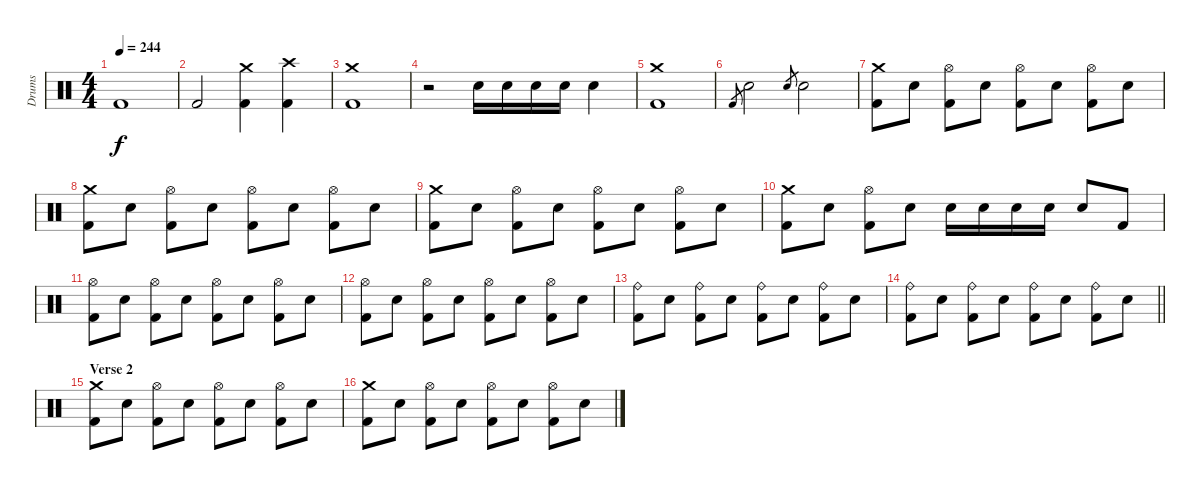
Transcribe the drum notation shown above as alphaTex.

\track ("Drums" "Drums") {instrument percussion}
\staff
\articulation defaults
\ts (4 4)
\tempo 244
\clef neutral
\ks c "Kick (hit) 2".1{dy f}
|
"Kick (hit) 2".2 ("Crash medium (hit)" "Kick (hit) 2").4 ("Crash high (hit)" "Kick (hit) 2").4 |
("Crash medium (hit)" "Kick (hit) 2").1 |
r.2 "Electric Snare (hit)".16 "Electric Snare (hit)".16 "Electric Snare (hit)".16 "Electric Snare (hit)".16 "Electric Snare (hit)".4 |
("Crash medium (hit)" "Kick (hit) 2").1 |
"Kick (hit) 2".8{gr} "Electric Snare (hit)".2 "Electric Snare (hit)".8{gr} "Electric Snare (hit)".2 |
("Crash medium (hit)" "Kick (hit) 2").8 "Electric Snare (hit)".8 ("Hi-Hat (open)" "Kick (hit) 2").8 "Electric Snare (hit)".8 ("Hi-Hat (open)" "Kick (hit) 2").8 "Electric Snare (hit)".8 ("Hi-Hat (open)" "Kick (hit) 2").8 "Electric Snare (hit)".8 |
("Crash medium (hit)" "Kick (hit) 2").8 "Electric Snare (hit)".8 ("Hi-Hat (open)" "Kick (hit) 2").8 "Electric Snare (hit)".8 ("Hi-Hat (open)" "Kick (hit) 2").8 "Electric Snare (hit)".8 ("Hi-Hat (open)" "Kick (hit) 2").8 "Electric Snare (hit)".8 |
("Crash medium (hit)" "Kick (hit) 2").8 "Electric Snare (hit)".8 ("Hi-Hat (open)" "Kick (hit) 2").8 "Electric Snare (hit)".8 ("Hi-Hat (open)" "Kick (hit) 2").8 "Electric Snare (hit)".8 ("Hi-Hat (open)" "Kick (hit) 2").8 "Electric Snare (hit)".8 |
("Crash medium (hit)" "Kick (hit) 2").8 "Electric Snare (hit)".8 ("Hi-Hat (open)" "Kick (hit) 2").8 "Electric Snare (hit)".8 "Electric Snare (hit)".16 "Electric Snare (hit)".16 "Electric Snare (hit)".16 "Electric Snare (hit)".16 "Electric Snare (hit)".8 "Kick (hit) 2".8 |
("Hi-Hat (open)" "Kick (hit) 2").8 "Electric Snare (hit)".8 ("Hi-Hat (open)" "Kick (hit) 2").8 "Electric Snare (hit)".8 ("Hi-Hat (open)" "Kick (hit) 2").8 "Electric Snare (hit)".8 ("Hi-Hat (open)" "Kick (hit) 2").8 "Electric Snare (hit)".8 |
("Hi-Hat (open)" "Kick (hit) 2").8 "Electric Snare (hit)".8 ("Hi-Hat (open)" "Kick (hit) 2").8 "Electric Snare (hit)".8 ("Hi-Hat (open)" "Kick (hit) 2").8 "Electric Snare (hit)".8 ("Hi-Hat (open)" "Kick (hit) 2").8 "Electric Snare (hit)".8 |
("Ride (bell)" "Kick (hit) 2").8 "Electric Snare (hit)".8 ("Ride (bell)" "Kick (hit) 2").8 "Electric Snare (hit)".8 ("Ride (bell)" "Kick (hit) 2").8 "Electric Snare (hit)".8 ("Ride (bell)" "Kick (hit) 2").8 "Electric Snare (hit)".8 |
\barLineRight lightlight
("Ride (bell)" "Kick (hit) 2").8 "Electric Snare (hit)".8 ("Ride (bell)" "Kick (hit) 2").8 "Electric Snare (hit)".8 ("Ride (bell)" "Kick (hit) 2").8 "Electric Snare (hit)".8 ("Ride (bell)" "Kick (hit) 2").8 "Electric Snare (hit)".8 |
\section ("" "Verse 2")
("Crash medium (hit)" "Kick (hit) 2").8 "Electric Snare (hit)".8 ("Hi-Hat (open)" "Kick (hit) 2").8 "Electric Snare (hit)".8 ("Hi-Hat (open)" "Kick (hit) 2").8 "Electric Snare (hit)".8 ("Hi-Hat (open)" "Kick (hit) 2").8 "Electric Snare (hit)".8 |
("Crash medium (hit)" "Kick (hit) 2").8 "Electric Snare (hit)".8 ("Hi-Hat (open)" "Kick (hit) 2").8 "Electric Snare (hit)".8 ("Hi-Hat (open)" "Kick (hit) 2").8 "Electric Snare (hit)".8 ("Hi-Hat (open)" "Kick (hit) 2").8 "Electric Snare (hit)".8
